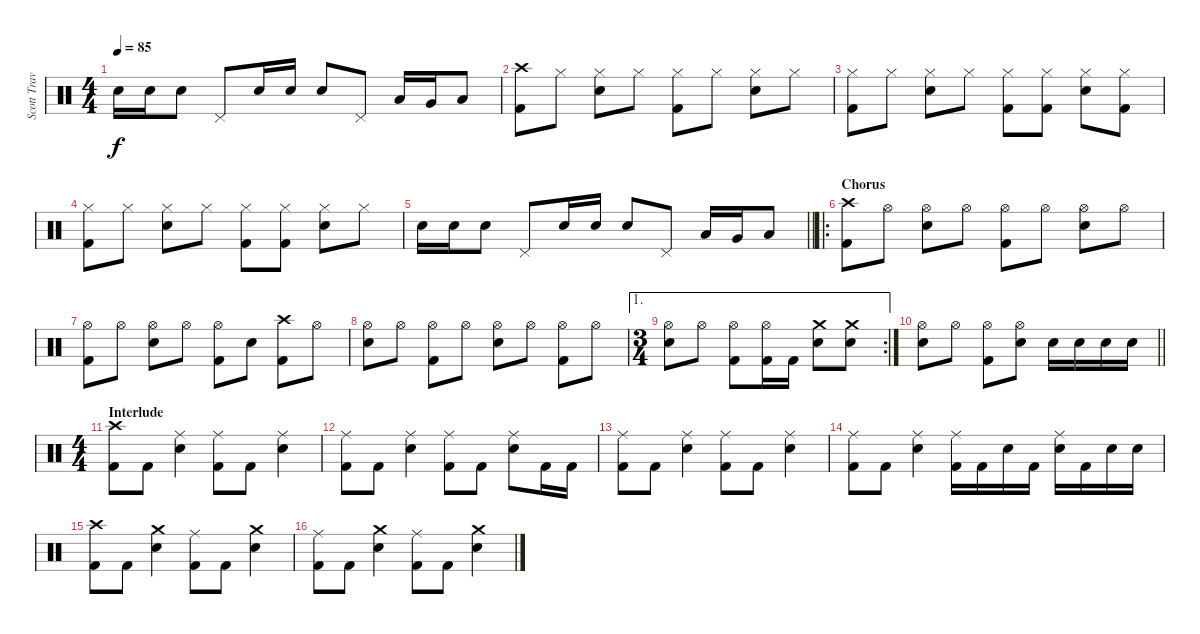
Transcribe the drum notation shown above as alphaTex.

\track ("Scott Travis" "Scott Trav") {instrument percussion}
\staff {score}
\articulation defaults
\ts (4 4)
\tempo 85
\clef neutral
\ks c "Snare (hit) 2".16{dy f} "Snare (hit) 2".16 "Snare (hit) 2".8 "Pedal Hi-Hat (hit)".8 "Snare (hit) 2".16 "Snare (hit) 2".16 "Snare (hit) 2".8 "Pedal Hi-Hat (hit)".8 "Low Tom (hit)".16 "Very Low Tom (hit)".16 "Low Floor Tom (hit)".8
|
("Crash high (hit)" "Kick (hit) 2").8 "Hi-Hat (closed)".8 ("Hi-Hat (closed)" "Snare (hit) 2").8 "Hi-Hat (closed)".8 ("Hi-Hat (closed)" "Kick (hit) 2").8 "Hi-Hat (closed)".8 ("Hi-Hat (closed)" "Snare (hit) 2").8 "Hi-Hat (closed)".8 |
("Hi-Hat (closed)" "Kick (hit) 2").8 "Hi-Hat (closed)".8 ("Hi-Hat (closed)" "Snare (hit) 2").8 "Hi-Hat (closed)".8 ("Hi-Hat (closed)" "Kick (hit) 2").8 ("Hi-Hat (closed)" "Kick (hit) 2").8 ("Hi-Hat (closed)" "Snare (hit) 2").8 ("Hi-Hat (closed)" "Kick (hit) 2").8 |
("Hi-Hat (closed)" "Kick (hit) 2").8 "Hi-Hat (closed)".8 ("Hi-Hat (closed)" "Snare (hit) 2").8 "Hi-Hat (closed)".8 ("Hi-Hat (closed)" "Kick (hit) 2").8 ("Hi-Hat (closed)" "Kick (hit) 2").8 ("Hi-Hat (closed)" "Snare (hit) 2").8 "Hi-Hat (closed)".8 |
\barLineRight lightlight "Snare (hit) 2".16 "Snare (hit) 2".16 "Snare (hit) 2".8 "Pedal Hi-Hat (hit)".8 "Snare (hit) 2".16 "Snare (hit) 2".16 "Snare (hit) 2".8 "Pedal Hi-Hat (hit)".8 "Low Tom (hit)".16 "Very Low Tom (hit)".16 "Low Floor Tom (hit)".8
|
\ro
\section ("" "Chorus")
("Crash high (hit)" "Kick (hit) 2").8 "Hi-Hat (open)".8 ("Hi-Hat (open)" "Snare (hit) 2").8 "Hi-Hat (open)".8 ("Hi-Hat (open)" "Kick (hit) 2").8 "Hi-Hat (open)".8 ("Hi-Hat (open)" "Snare (hit) 2").8 "Hi-Hat (open)".8 |
("Hi-Hat (open)" "Kick (hit) 2").8 "Hi-Hat (open)".8 ("Hi-Hat (open)" "Snare (hit) 2").8 "Hi-Hat (open)".8 ("Hi-Hat (open)" "Kick (hit) 2").8 "Snare (hit) 2".8 ("Crash high (hit)" "Kick (hit) 2").8 "Hi-Hat (open)".8 |
("Hi-Hat (open)" "Snare (hit) 2").8 "Hi-Hat (open)".8 ("Hi-Hat (open)" "Kick (hit) 2").8 "Hi-Hat (open)".8 ("Hi-Hat (open)" "Snare (hit) 2").8 "Hi-Hat (open)".8 ("Hi-Hat (open)" "Kick (hit) 2").8 "Hi-Hat (open)".8 |
\ae 1
\rc 2
\ts (3 4)
("Hi-Hat (open)" "Snare (hit) 2").8 "Hi-Hat (open)".8 ("Hi-Hat (open)" "Kick (hit) 2").8 ("Hi-Hat (open)" "Kick (hit) 2").16 "Kick (hit) 2".16 ("Crash medium (hit)" "Snare (hit) 2").8 ("Crash medium (hit)" "Snare (hit) 2").8 |
\barLineRight lightlight
("Hi-Hat (open)" "Snare (hit) 2").8 "Hi-Hat (open)".8 ("Hi-Hat (open)" "Kick (hit) 2").8 ("Hi-Hat (open)" "Snare (hit) 2").8 "Snare (hit) 2".16 "Snare (hit) 2".16 "Snare (hit) 2".16 "Snare (hit) 2".16 |
\ts (4 4)
\section ("" "Interlude")
("Crash high (hit)" "Kick (hit) 2").8 "Kick (hit) 2".8 ("Ride (middle)" "Snare (hit) 2").4 ("Ride (middle)" "Kick (hit) 2").8 "Kick (hit) 2".8 ("Ride (middle)" "Snare (hit) 2").4 |
("Ride (middle)" "Kick (hit) 2").8 "Kick (hit) 2".8 ("Ride (middle)" "Snare (hit) 2").4 ("Ride (middle)" "Kick (hit) 2").8 "Kick (hit) 2".8 ("Ride (middle)" "Snare (hit) 2").8 "Kick (hit) 2".16 "Kick (hit) 2".16 |
("Ride (middle)" "Kick (hit) 2").8 "Kick (hit) 2".8 ("Ride (middle)" "Snare (hit) 2").4 ("Ride (middle)" "Kick (hit) 2").8 "Kick (hit) 2".8 ("Ride (middle)" "Snare (hit) 2").4 |
("Ride (middle)" "Kick (hit) 2").8 "Kick (hit) 2".8 ("Ride (middle)" "Snare (hit) 2").4 ("Ride (middle)" "Kick (hit) 2").16 "Kick (hit) 2".16 "Snare (hit) 2".16 "Kick (hit) 2".16 ("Ride (middle)" "Snare (hit) 2").16 "Kick (hit) 2".16 "Snare (hit) 2".16 "Snare (hit) 2".16 |
("Crash high (hit)" "Kick (hit) 2").8 "Kick (hit) 2".8 ("Crash medium (hit)" "Snare (hit) 2").4 ("Ride (middle)" "Kick (hit) 2").8 "Kick (hit) 2".8 ("Crash medium (hit)" "Snare (hit) 2").4 |
("Ride (middle)" "Kick (hit) 2").8 "Kick (hit) 2".8 ("Crash medium (hit)" "Snare (hit) 2").4 ("Ride (middle)" "Kick (hit) 2").8 "Kick (hit) 2".8 ("Crash medium (hit)" "Snare (hit) 2").4
